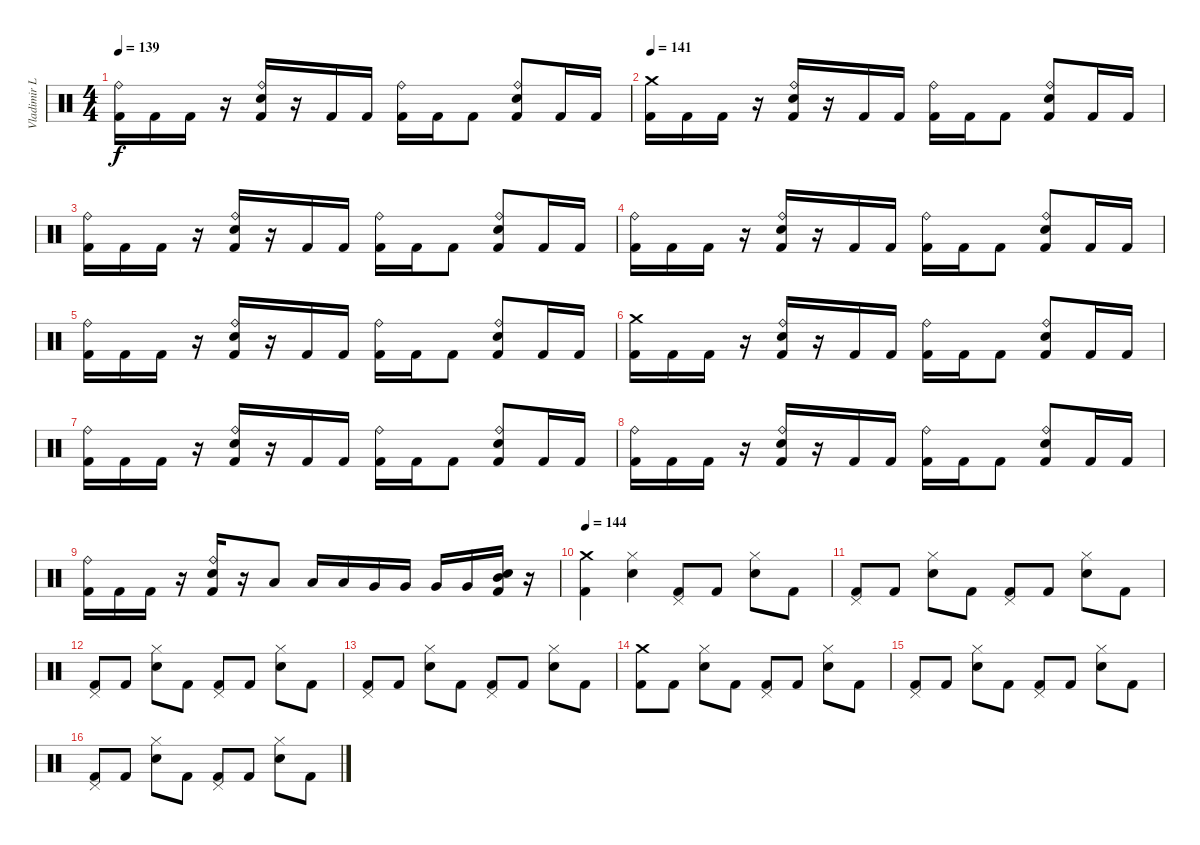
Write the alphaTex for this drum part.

\track ("Vladimir L." "Vladimir L") {solo instrument percussion}
\staff {score}
\articulation defaults
\ts (4 4)
\tempo 139
\clef neutral
\ks c
("Kick (hit) 2" "Ride (bell)").16{dy f} "Kick (hit) 2".16 "Kick (hit) 2".16 r.16 ("Kick (hit) 2" "Electric Snare (hit)" "Ride (bell)").16 r.16 "Kick (hit) 2".16 "Kick (hit) 2".16 ("Kick (hit) 2" "Ride (bell)").16 "Kick (hit) 2".16 "Kick (hit) 2".8 ("Kick (hit) 2" "Electric Snare (hit)" "Ride (bell)").8 "Kick (hit) 2".16 "Kick (hit) 2".16 |
\tempo 141
("Kick (hit) 2" "Crash medium (hit)").16 "Kick (hit) 2".16 "Kick (hit) 2".16 r.16 ("Kick (hit) 2" "Electric Snare (hit)" "Ride (bell)").16 r.16 "Kick (hit) 2".16 "Kick (hit) 2".16 ("Kick (hit) 2" "Ride (bell)").16 "Kick (hit) 2".16 "Kick (hit) 2".8 ("Kick (hit) 2" "Electric Snare (hit)" "Ride (bell)").8 "Kick (hit) 2".16 "Kick (hit) 2".16 |
("Kick (hit) 2" "Ride (bell)").16 "Kick (hit) 2".16 "Kick (hit) 2".16 r.16 ("Kick (hit) 2" "Electric Snare (hit)" "Ride (bell)").16 r.16 "Kick (hit) 2".16 "Kick (hit) 2".16 ("Kick (hit) 2" "Ride (bell)").16 "Kick (hit) 2".16 "Kick (hit) 2".8 ("Kick (hit) 2" "Electric Snare (hit)" "Ride (bell)").8 "Kick (hit) 2".16 "Kick (hit) 2".16 |
("Kick (hit) 2" "Ride (bell)").16 "Kick (hit) 2".16 "Kick (hit) 2".16 r.16 ("Kick (hit) 2" "Electric Snare (hit)" "Ride (bell)").16 r.16 "Kick (hit) 2".16 "Kick (hit) 2".16 ("Kick (hit) 2" "Ride (bell)").16 "Kick (hit) 2".16 "Kick (hit) 2".8 ("Kick (hit) 2" "Electric Snare (hit)" "Ride (bell)").8 "Kick (hit) 2".16 "Kick (hit) 2".16 |
("Kick (hit) 2" "Ride (bell)").16 "Kick (hit) 2".16 "Kick (hit) 2".16 r.16 ("Kick (hit) 2" "Electric Snare (hit)" "Ride (bell)").16 r.16 "Kick (hit) 2".16 "Kick (hit) 2".16 ("Kick (hit) 2" "Ride (bell)").16 "Kick (hit) 2".16 "Kick (hit) 2".8 ("Kick (hit) 2" "Electric Snare (hit)" "Ride (bell)").8 "Kick (hit) 2".16 "Kick (hit) 2".16 |
("Kick (hit) 2" "Crash medium (hit)").16 "Kick (hit) 2".16 "Kick (hit) 2".16 r.16 ("Kick (hit) 2" "Electric Snare (hit)" "Ride (bell)").16 r.16 "Kick (hit) 2".16 "Kick (hit) 2".16 ("Kick (hit) 2" "Ride (bell)").16 "Kick (hit) 2".16 "Kick (hit) 2".8 ("Kick (hit) 2" "Electric Snare (hit)" "Ride (bell)").8 "Kick (hit) 2".16 "Kick (hit) 2".16 |
("Kick (hit) 2" "Ride (bell)").16 "Kick (hit) 2".16 "Kick (hit) 2".16 r.16 ("Kick (hit) 2" "Electric Snare (hit)" "Ride (bell)").16 r.16 "Kick (hit) 2".16 "Kick (hit) 2".16 ("Kick (hit) 2" "Ride (bell)").16 "Kick (hit) 2".16 "Kick (hit) 2".8 ("Kick (hit) 2" "Electric Snare (hit)" "Ride (bell)").8 "Kick (hit) 2".16 "Kick (hit) 2".16 |
("Kick (hit) 2" "Ride (bell)").16 "Kick (hit) 2".16 "Kick (hit) 2".16 r.16 ("Kick (hit) 2" "Electric Snare (hit)" "Ride (bell)").16 r.16 "Kick (hit) 2".16 "Kick (hit) 2".16 ("Kick (hit) 2" "Ride (bell)").16 "Kick (hit) 2".16 "Kick (hit) 2".8 ("Kick (hit) 2" "Electric Snare (hit)" "Ride (bell)").8 "Kick (hit) 2".16 "Kick (hit) 2".16 |
("Kick (hit) 2" "Ride (bell)").16 "Kick (hit) 2".16 "Kick (hit) 2".16 r.16 ("Kick (hit) 2" "Electric Snare (hit)" "Ride (bell)").16 r.16 "Low Floor Tom (hit)".8 "Low Floor Tom (hit)".16 "Low Floor Tom (hit)".16 "Very Low Tom (hit)".16 "Very Low Tom (hit)".16 "Very Low Tom (hit)".16 "Very Low Tom (hit)".16 ("Kick (hit) 2" "Electric Snare (hit)" "Mid Tom (hit)").16 r.16 |
\tempo 144
("Kick (hit) 2" "Crash medium (hit)").4 ("Electric Snare (hit)" "Hi-Hat (closed)").4 ("Kick (hit) 2" "Pedal Hi-Hat (hit)").8 "Kick (hit) 2".8 ("Electric Snare (hit)" "Hi-Hat (closed)").8 "Kick (hit) 2".8 |
("Kick (hit) 2" "Pedal Hi-Hat (hit)").8 "Kick (hit) 2".8 ("Electric Snare (hit)" "Hi-Hat (closed)").8 "Kick (hit) 2".8 ("Kick (hit) 2" "Pedal Hi-Hat (hit)").8 "Kick (hit) 2".8 ("Electric Snare (hit)" "Hi-Hat (closed)").8 "Kick (hit) 2".8 |
("Kick (hit) 2" "Pedal Hi-Hat (hit)").8 "Kick (hit) 2".8 ("Electric Snare (hit)" "Hi-Hat (closed)").8 "Kick (hit) 2".8 ("Kick (hit) 2" "Pedal Hi-Hat (hit)").8 "Kick (hit) 2".8 ("Electric Snare (hit)" "Hi-Hat (closed)").8 "Kick (hit) 2".8 |
("Kick (hit) 2" "Pedal Hi-Hat (hit)").8 "Kick (hit) 2".8 ("Electric Snare (hit)" "Hi-Hat (closed)").8 "Kick (hit) 2".8 ("Kick (hit) 2" "Pedal Hi-Hat (hit)").8 "Kick (hit) 2".8 ("Electric Snare (hit)" "Hi-Hat (closed)").8 "Kick (hit) 2".8 |
("Kick (hit) 2" "Crash medium (hit)").8 "Kick (hit) 2".8 ("Electric Snare (hit)" "Hi-Hat (closed)").8 "Kick (hit) 2".8 ("Kick (hit) 2" "Pedal Hi-Hat (hit)").8 "Kick (hit) 2".8 ("Electric Snare (hit)" "Hi-Hat (closed)").8 "Kick (hit) 2".8 |
("Kick (hit) 2" "Pedal Hi-Hat (hit)").8 "Kick (hit) 2".8 ("Electric Snare (hit)" "Hi-Hat (closed)").8 "Kick (hit) 2".8 ("Kick (hit) 2" "Pedal Hi-Hat (hit)").8 "Kick (hit) 2".8 ("Electric Snare (hit)" "Hi-Hat (closed)").8 "Kick (hit) 2".8 |
("Kick (hit) 2" "Pedal Hi-Hat (hit)").8 "Kick (hit) 2".8 ("Electric Snare (hit)" "Hi-Hat (closed)").8 "Kick (hit) 2".8 ("Kick (hit) 2" "Pedal Hi-Hat (hit)").8 "Kick (hit) 2".8 ("Electric Snare (hit)" "Hi-Hat (closed)").8 "Kick (hit) 2".8
